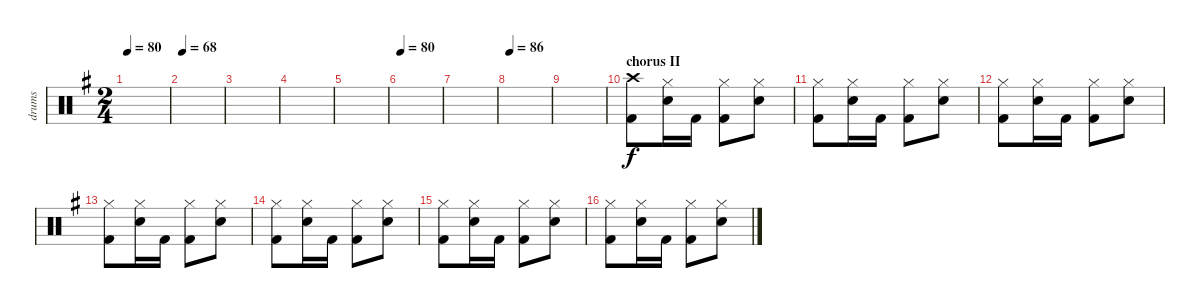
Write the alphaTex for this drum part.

\track ("drums" "drums") {instrument percussion}
\staff {score}
\articulation defaults
\ts (2 4)
\tempo 80
\clef neutral
\ks g
|
\tempo 68
|
|
|
|
\tempo 80
|
|
\tempo 86
|
|
\section ("" "chorus II")
("Crash high (hit)" "Kick (hit) 2").8 ("Hi-Hat (closed)" "Snare (hit) 2").16 "Kick (hit) 2".16 ("Hi-Hat (closed)" "Kick (hit) 2").8 ("Hi-Hat (closed)" "Snare (hit) 2").8 |
("Hi-Hat (closed)" "Kick (hit) 2").8 ("Hi-Hat (closed)" "Snare (hit) 2").16 "Kick (hit) 2".16 ("Hi-Hat (closed)" "Kick (hit) 2").8 ("Hi-Hat (closed)" "Snare (hit) 2").8 |
("Hi-Hat (closed)" "Kick (hit) 2").8 ("Hi-Hat (closed)" "Snare (hit) 2").16 "Kick (hit) 2".16 ("Hi-Hat (closed)" "Kick (hit) 2").8 ("Hi-Hat (closed)" "Snare (hit) 2").8 |
("Hi-Hat (closed)" "Kick (hit) 2").8 ("Hi-Hat (closed)" "Snare (hit) 2").16 "Kick (hit) 2".16 ("Hi-Hat (closed)" "Kick (hit) 2").8 ("Hi-Hat (closed)" "Snare (hit) 2").8 |
("Hi-Hat (closed)" "Kick (hit) 2").8 ("Hi-Hat (closed)" "Snare (hit) 2").16 "Kick (hit) 2".16 ("Hi-Hat (closed)" "Kick (hit) 2").8 ("Hi-Hat (closed)" "Snare (hit) 2").8 |
("Hi-Hat (closed)" "Kick (hit) 2").8 ("Hi-Hat (closed)" "Snare (hit) 2").16 "Kick (hit) 2".16 ("Hi-Hat (closed)" "Kick (hit) 2").8 ("Hi-Hat (closed)" "Snare (hit) 2").8 |
("Hi-Hat (closed)" "Kick (hit) 2").8 ("Hi-Hat (closed)" "Snare (hit) 2").16 "Kick (hit) 2".16 ("Hi-Hat (closed)" "Kick (hit) 2").8 ("Hi-Hat (closed)" "Snare (hit) 2").8
